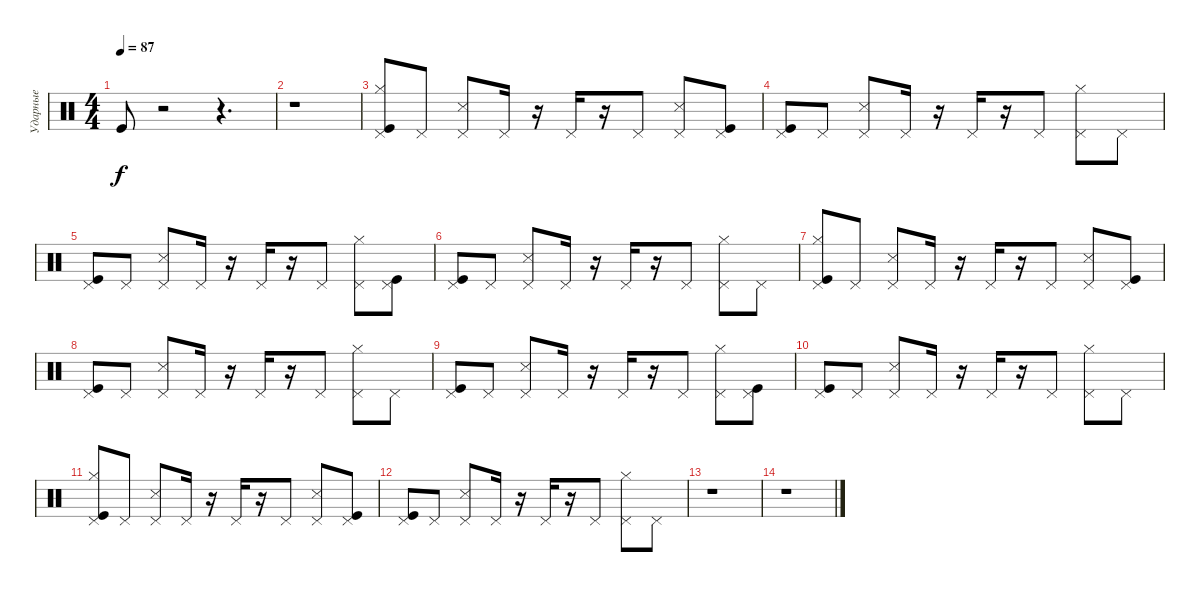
\track ("Ударные" "Ударные") {instrument percussion}
\staff {score}
\articulation defaults
\ts (4 4)
\tempo 87
\clef neutral
\ks c "Kick (hit)".8{dy f}
r.2 r.4{d} |
r.1 |
("Hi-Hat (closed)" "Kick (hit)" "Pedal Hi-Hat (hit)").8 "Pedal Hi-Hat (hit)".8 ("Snare (side stick) 3" "Pedal Hi-Hat (hit)").8 "Pedal Hi-Hat (hit)".16 r.16 "Pedal Hi-Hat (hit)".16 r.16 "Pedal Hi-Hat (hit)".8 ("Snare (side stick) 3" "Pedal Hi-Hat (hit)").8 ("Kick (hit)" "Pedal Hi-Hat (hit)").8 |
("Kick (hit)" "Pedal Hi-Hat (hit)").8 "Pedal Hi-Hat (hit)".8 ("Snare (side stick) 3" "Pedal Hi-Hat (hit)").8 "Pedal Hi-Hat (hit)".16 r.16 "Pedal Hi-Hat (hit)".16 r.16 "Pedal Hi-Hat (hit)".8 ("Pedal Hi-Hat (hit)" "Hi-Hat (closed)").8 "Pedal Hi-Hat (hit)".8 |
("Kick (hit)" "Pedal Hi-Hat (hit)").8 "Pedal Hi-Hat (hit)".8 ("Snare (side stick) 3" "Pedal Hi-Hat (hit)").8 "Pedal Hi-Hat (hit)".16 r.16 "Pedal Hi-Hat (hit)".16 r.16 "Pedal Hi-Hat (hit)".8 ("Pedal Hi-Hat (hit)" "Hi-Hat (closed)").8 ("Pedal Hi-Hat (hit)" "Kick (hit)").8 |
("Kick (hit)" "Pedal Hi-Hat (hit)").8 "Pedal Hi-Hat (hit)".8 ("Snare (side stick) 3" "Pedal Hi-Hat (hit)").8 "Pedal Hi-Hat (hit)".16 r.16 "Pedal Hi-Hat (hit)".16 r.16 "Pedal Hi-Hat (hit)".8 ("Pedal Hi-Hat (hit)" "Hi-Hat (closed)").8 "Pedal Hi-Hat (hit)".8 |
("Hi-Hat (closed)" "Kick (hit)" "Pedal Hi-Hat (hit)").8 "Pedal Hi-Hat (hit)".8 ("Snare (side stick) 3" "Pedal Hi-Hat (hit)").8 "Pedal Hi-Hat (hit)".16 r.16 "Pedal Hi-Hat (hit)".16 r.16 "Pedal Hi-Hat (hit)".8 ("Snare (side stick) 3" "Pedal Hi-Hat (hit)").8 ("Kick (hit)" "Pedal Hi-Hat (hit)").8 |
("Kick (hit)" "Pedal Hi-Hat (hit)").8 "Pedal Hi-Hat (hit)".8 ("Snare (side stick) 3" "Pedal Hi-Hat (hit)").8 "Pedal Hi-Hat (hit)".16 r.16 "Pedal Hi-Hat (hit)".16 r.16 "Pedal Hi-Hat (hit)".8 ("Pedal Hi-Hat (hit)" "Hi-Hat (closed)").8 "Pedal Hi-Hat (hit)".8 |
("Kick (hit)" "Pedal Hi-Hat (hit)").8 "Pedal Hi-Hat (hit)".8 ("Snare (side stick) 3" "Pedal Hi-Hat (hit)").8 "Pedal Hi-Hat (hit)".16 r.16 "Pedal Hi-Hat (hit)".16 r.16 "Pedal Hi-Hat (hit)".8 ("Pedal Hi-Hat (hit)" "Hi-Hat (closed)").8 ("Pedal Hi-Hat (hit)" "Kick (hit)").8 |
("Kick (hit)" "Pedal Hi-Hat (hit)").8 "Pedal Hi-Hat (hit)".8 ("Snare (side stick) 3" "Pedal Hi-Hat (hit)").8 "Pedal Hi-Hat (hit)".16 r.16 "Pedal Hi-Hat (hit)".16 r.16 "Pedal Hi-Hat (hit)".8 ("Pedal Hi-Hat (hit)" "Hi-Hat (closed)").8 "Pedal Hi-Hat (hit)".8 |
("Hi-Hat (closed)" "Kick (hit)" "Pedal Hi-Hat (hit)").8 "Pedal Hi-Hat (hit)".8 ("Snare (side stick) 3" "Pedal Hi-Hat (hit)").8 "Pedal Hi-Hat (hit)".16 r.16 "Pedal Hi-Hat (hit)".16 r.16 "Pedal Hi-Hat (hit)".8 ("Snare (side stick) 3" "Pedal Hi-Hat (hit)").8 ("Kick (hit)" "Pedal Hi-Hat (hit)").8 |
("Kick (hit)" "Pedal Hi-Hat (hit)").8 "Pedal Hi-Hat (hit)".8 ("Snare (side stick) 3" "Pedal Hi-Hat (hit)").8 "Pedal Hi-Hat (hit)".16 r.16 "Pedal Hi-Hat (hit)".16 r.16 "Pedal Hi-Hat (hit)".8 ("Pedal Hi-Hat (hit)" "Hi-Hat (closed)").8 "Pedal Hi-Hat (hit)".8 |
r.1 |
r.1
